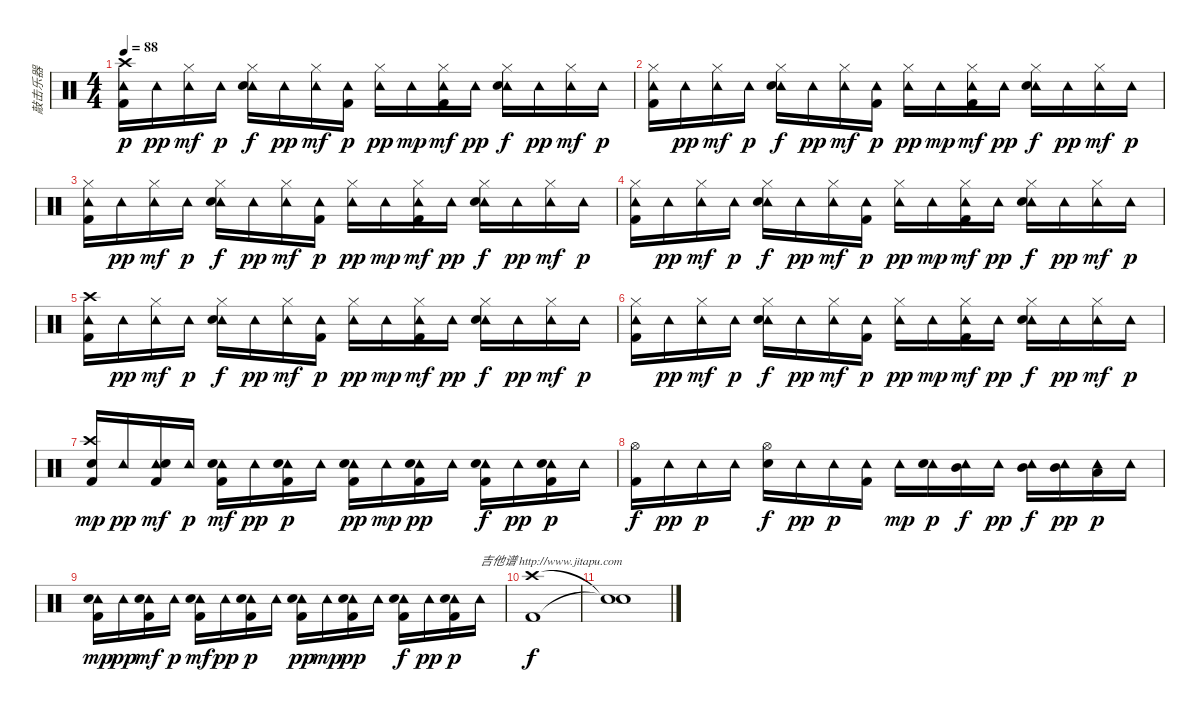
\track ("敲击乐器" "敲击乐器") {instrument percussion}
\staff {score}
\articulation defaults
\ts (4 4)
\tempo 88
\clef neutral
\ks c
("Tambourine (hit)" "Kick (hit) 2" "Crash high (hit)").16{dy p} "Tambourine (hit)".16{dy pp} ("Tambourine (hit)" "Hi-Hat (closed)").16{dy mf} "Tambourine (hit)".16{dy p} ("Tambourine (hit)" "Electric Snare (hit)" "Hi-Hat (closed)").16{dy f} "Tambourine (hit)".16{dy pp} ("Tambourine (hit)" "Hi-Hat (closed)").16{dy mf} ("Tambourine (hit)" "Kick (hit) 2").16{dy p} ("Tambourine (hit)" "Hi-Hat (closed)").16{dy pp} "Tambourine (hit)".16{dy mp} ("Tambourine (hit)" "Kick (hit) 2" "Hi-Hat (closed)").16{dy mf} "Tambourine (hit)".16{dy pp} ("Tambourine (hit)" "Electric Snare (hit)" "Hi-Hat (closed)").16{dy f} "Tambourine (hit)".16{dy pp} ("Tambourine (hit)" "Hi-Hat (closed)").16{dy mf} "Tambourine (hit)".16{dy p} |
("Tambourine (hit)" "Kick (hit) 2" "Hi-Hat (closed)").16 "Tambourine (hit)".16{dy pp} ("Tambourine (hit)" "Hi-Hat (closed)").16{dy mf} "Tambourine (hit)".16{dy p} ("Tambourine (hit)" "Electric Snare (hit)" "Hi-Hat (closed)").16{dy f} "Tambourine (hit)".16{dy pp} ("Tambourine (hit)" "Hi-Hat (closed)").16{dy mf} ("Tambourine (hit)" "Kick (hit) 2").16{dy p} ("Tambourine (hit)" "Hi-Hat (closed)").16{dy pp} "Tambourine (hit)".16{dy mp} ("Tambourine (hit)" "Kick (hit) 2" "Hi-Hat (closed)").16{dy mf} "Tambourine (hit)".16{dy pp} ("Tambourine (hit)" "Electric Snare (hit)" "Hi-Hat (closed)").16{dy f} "Tambourine (hit)".16{dy pp} ("Tambourine (hit)" "Hi-Hat (closed)").16{dy mf} "Tambourine (hit)".16{dy p} |
("Tambourine (hit)" "Kick (hit) 2" "Hi-Hat (closed)").16 "Tambourine (hit)".16{dy pp} ("Tambourine (hit)" "Hi-Hat (closed)").16{dy mf} "Tambourine (hit)".16{dy p} ("Tambourine (hit)" "Electric Snare (hit)" "Hi-Hat (closed)").16{dy f} "Tambourine (hit)".16{dy pp} ("Tambourine (hit)" "Hi-Hat (closed)").16{dy mf} ("Tambourine (hit)" "Kick (hit) 2").16{dy p} ("Tambourine (hit)" "Hi-Hat (closed)").16{dy pp} "Tambourine (hit)".16{dy mp} ("Tambourine (hit)" "Kick (hit) 2" "Hi-Hat (closed)").16{dy mf} "Tambourine (hit)".16{dy pp} ("Tambourine (hit)" "Electric Snare (hit)" "Hi-Hat (closed)").16{dy f} "Tambourine (hit)".16{dy pp} ("Tambourine (hit)" "Hi-Hat (closed)").16{dy mf} "Tambourine (hit)".16{dy p} |
("Tambourine (hit)" "Kick (hit) 2" "Hi-Hat (closed)").16 "Tambourine (hit)".16{dy pp} ("Tambourine (hit)" "Hi-Hat (closed)").16{dy mf} "Tambourine (hit)".16{dy p} ("Tambourine (hit)" "Electric Snare (hit)" "Hi-Hat (closed)").16{dy f} "Tambourine (hit)".16{dy pp} ("Tambourine (hit)" "Hi-Hat (closed)").16{dy mf} ("Tambourine (hit)" "Kick (hit) 2").16{dy p} ("Tambourine (hit)" "Hi-Hat (closed)").16{dy pp} "Tambourine (hit)".16{dy mp} ("Tambourine (hit)" "Kick (hit) 2" "Hi-Hat (closed)").16{dy mf} "Tambourine (hit)".16{dy pp} ("Tambourine (hit)" "Electric Snare (hit)" "Hi-Hat (closed)").16{dy f} "Tambourine (hit)".16{dy pp} ("Tambourine (hit)" "Hi-Hat (closed)").16{dy mf} "Tambourine (hit)".16{dy p} |
("Tambourine (hit)" "Kick (hit) 2" "Crash high (hit)").16 "Tambourine (hit)".16{dy pp} ("Tambourine (hit)" "Hi-Hat (closed)").16{dy mf} "Tambourine (hit)".16{dy p} ("Tambourine (hit)" "Electric Snare (hit)" "Hi-Hat (closed)").16{dy f} "Tambourine (hit)".16{dy pp} ("Tambourine (hit)" "Hi-Hat (closed)").16{dy mf} ("Tambourine (hit)" "Kick (hit) 2").16{dy p} ("Tambourine (hit)" "Hi-Hat (closed)").16{dy pp} "Tambourine (hit)".16{dy mp} ("Tambourine (hit)" "Kick (hit) 2" "Hi-Hat (closed)").16{dy mf} "Tambourine (hit)".16{dy pp} ("Tambourine (hit)" "Electric Snare (hit)" "Hi-Hat (closed)").16{dy f} "Tambourine (hit)".16{dy pp} ("Tambourine (hit)" "Hi-Hat (closed)").16{dy mf} "Tambourine (hit)".16{dy p} |
("Tambourine (hit)" "Kick (hit) 2" "Hi-Hat (closed)").16 "Tambourine (hit)".16{dy pp} ("Tambourine (hit)" "Hi-Hat (closed)").16{dy mf} "Tambourine (hit)".16{dy p} ("Tambourine (hit)" "Electric Snare (hit)" "Hi-Hat (closed)").16{dy f} "Tambourine (hit)".16{dy pp} ("Tambourine (hit)" "Hi-Hat (closed)").16{dy mf} ("Tambourine (hit)" "Kick (hit) 2").16{dy p} ("Tambourine (hit)" "Hi-Hat (closed)").16{dy pp} "Tambourine (hit)".16{dy mp} ("Tambourine (hit)" "Kick (hit) 2" "Hi-Hat (closed)").16{dy mf} "Tambourine (hit)".16{dy pp} ("Tambourine (hit)" "Electric Snare (hit)" "Hi-Hat (closed)").16{dy f} "Tambourine (hit)".16{dy pp} ("Tambourine (hit)" "Hi-Hat (closed)").16{dy mf} "Tambourine (hit)".16{dy p} |
("Crash high (hit)" "Kick (hit) 2" "Electric Snare (hit)").16{dy mp} "Tambourine (hit)".16{dy pp} ("Tambourine (hit)" "Kick (hit) 2" "Electric Snare (hit)").16{dy mf} "Tambourine (hit)".16{dy p} ("Tambourine (hit)" "Kick (hit) 2" "Electric Snare (hit)").16{dy mf} "Tambourine (hit)".16{dy pp} ("Tambourine (hit)" "Kick (hit) 2" "Electric Snare (hit)").16{dy p} "Tambourine (hit)".16 ("Tambourine (hit)" "Kick (hit) 2" "Electric Snare (hit)").16{dy pp} "Tambourine (hit)".16{dy mp} ("Tambourine (hit)" "Kick (hit) 2" "Electric Snare (hit)").16{dy pp} "Tambourine (hit)".16 ("Tambourine (hit)" "Kick (hit) 2" "Electric Snare (hit)").16{dy f} "Tambourine (hit)".16{dy pp} ("Tambourine (hit)" "Kick (hit) 2" "Electric Snare (hit)").16{dy p} "Tambourine (hit)".16 |
("Hi-Hat (open)" "Kick (hit) 2").16{dy f} "Tambourine (hit)".16{dy pp} "Tambourine (hit)".16{dy p} "Tambourine (hit)".16 ("Hi-Hat (open)" "Electric Snare (hit)").16{dy f} "Tambourine (hit)".16{dy pp} "Tambourine (hit)".16{dy p} ("Tambourine (hit)" "Kick (hit) 2").16 "Tambourine (hit)".16{dy mp} ("Tambourine (hit)" "Electric Snare (hit)").16{dy p} ("Tambourine (hit)" "Mid Tom (hit)").16{dy f} "Tambourine (hit)".16{dy pp} ("Tambourine (hit)" "Mid Tom (hit)").16{dy f} ("Tambourine (hit)" "Mid Tom (hit)").16{dy pp} ("Tambourine (hit)" "Low Tom (hit)").16{dy p} "Tambourine (hit)".16 |
("Tambourine (hit)" "Kick (hit) 2" "Electric Snare (hit)").16{dy mp} "Tambourine (hit)".16{dy pp} ("Tambourine (hit)" "Kick (hit) 2" "Electric Snare (hit)").16{dy mf} "Tambourine (hit)".16{dy p} ("Tambourine (hit)" "Kick (hit) 2" "Electric Snare (hit)").16{dy mf} "Tambourine (hit)".16{dy pp} ("Tambourine (hit)" "Kick (hit) 2" "Electric Snare (hit)").16{dy p} "Tambourine (hit)".16 ("Tambourine (hit)" "Kick (hit) 2" "Electric Snare (hit)").16{dy pp} "Tambourine (hit)".16{dy mp} ("Tambourine (hit)" "Kick (hit) 2" "Electric Snare (hit)").16{dy pp} "Tambourine (hit)".16 ("Tambourine (hit)" "Kick (hit) 2" "Electric Snare (hit)").16{dy f} "Tambourine (hit)".16{dy pp} ("Tambourine (hit)" "Kick (hit) 2" "Electric Snare (hit)").16{dy p} "Tambourine (hit)".16{txt "吉他谱 http://www.jitapu.com"} |
("Crash high (hit)" "Kick (hit) 2").1{dy f} |
("Snare (hit)"{t} "Snare (hit)"{t}).1
